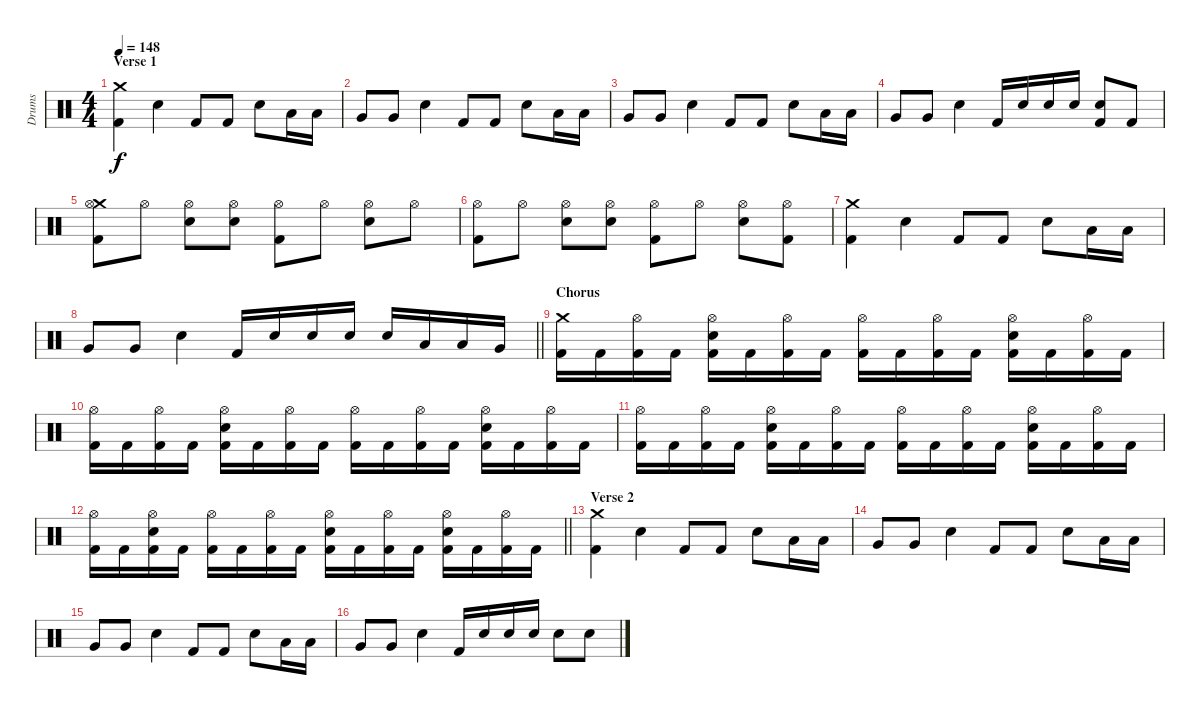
\track ("Drums" "Drums") {instrument percussion}
\staff {score}
\articulation defaults
\ts (4 4)
\section ("" "Verse 1")
\tempo 148
\clef neutral
\ks c
("Crash medium (hit)" "Kick (hit) 2").4{dy f} "Snare (hit) 2".4 "Kick (hit) 2".8 "Kick (hit) 2".8 "Snare (hit) 2".8 "Low Tom (hit)".16 "Low Tom (hit)".16 |
"Very Low Tom (hit)".8 "Very Low Tom (hit)".8 "Snare (hit) 2".4 "Kick (hit) 2".8 "Kick (hit) 2".8 "Snare (hit) 2".8 "Low Tom (hit)".16 "Low Tom (hit)".16 |
"Very Low Tom (hit)".8 "Very Low Tom (hit)".8 "Snare (hit) 2".4 "Kick (hit) 2".8 "Kick (hit) 2".8 "Snare (hit) 2".8 "Low Tom (hit)".16 "Low Tom (hit)".16 |
"Very Low Tom (hit)".8 "Very Low Tom (hit)".8 "Snare (hit) 2".4 "Kick (hit) 2".16 "Snare (hit) 2".16 "Snare (hit) 2".16 "Snare (hit) 2".16 ("Snare (hit) 2" "Kick (hit) 2").8 "Kick (hit) 2".8 |
("Crash medium (hit)" "Hi-Hat (open)" "Kick (hit) 2").8 "Hi-Hat (open)".8 ("Hi-Hat (open)" "Snare (hit) 2").8 ("Hi-Hat (open)" "Snare (hit) 2").8 ("Hi-Hat (open)" "Kick (hit) 2").8 "Hi-Hat (open)".8 ("Hi-Hat (open)" "Snare (hit) 2").8 "Hi-Hat (open)".8 |
("Hi-Hat (open)" "Kick (hit) 2").8 "Hi-Hat (open)".8 ("Hi-Hat (open)" "Snare (hit) 2").8 ("Hi-Hat (open)" "Snare (hit) 2").8 ("Hi-Hat (open)" "Kick (hit) 2").8 "Hi-Hat (open)".8 ("Hi-Hat (open)" "Snare (hit) 2").8 ("Hi-Hat (open)" "Kick (hit) 2").8 |
("Crash medium (hit)" "Kick (hit) 2").4 "Snare (hit) 2".4 "Kick (hit) 2".8 "Kick (hit) 2".8 "Snare (hit) 2".8 "Low Tom (hit)".16 "Low Tom (hit)".16 |
\barLineRight lightlight "Very Low Tom (hit)".8 "Very Low Tom (hit)".8 "Snare (hit) 2".4 "Kick (hit) 2".16 "Snare (hit) 2".16 "Snare (hit) 2".16 "Snare (hit) 2".16 "Snare (hit) 2".16 "Low Tom (hit)".16 "Low Tom (hit)".16 "Very Low Tom (hit)".16
|
\section ("" "Chorus")
("Crash medium (hit)" "Kick (hit) 2").16 "Kick (hit) 2".16 ("Hi-Hat (open)" "Kick (hit) 2").16 "Kick (hit) 2".16 ("Hi-Hat (open)" "Snare (hit) 2" "Kick (hit) 2").16 "Kick (hit) 2".16 ("Hi-Hat (open)" "Kick (hit) 2").16 "Kick (hit) 2".16 ("Hi-Hat (open)" "Kick (hit) 2").16 "Kick (hit) 2".16 ("Hi-Hat (open)" "Kick (hit) 2").16 "Kick (hit) 2".16 ("Hi-Hat (open)" "Snare (hit) 2" "Kick (hit) 2").16 "Kick (hit) 2".16 ("Hi-Hat (open)" "Kick (hit) 2").16 "Kick (hit) 2".16 |
("Hi-Hat (open)" "Kick (hit) 2").16 "Kick (hit) 2".16 ("Hi-Hat (open)" "Kick (hit) 2").16 "Kick (hit) 2".16 ("Hi-Hat (open)" "Snare (hit) 2" "Kick (hit) 2").16 "Kick (hit) 2".16 ("Hi-Hat (open)" "Kick (hit) 2").16 "Kick (hit) 2".16 ("Hi-Hat (open)" "Kick (hit) 2").16 "Kick (hit) 2".16 ("Hi-Hat (open)" "Kick (hit) 2").16 "Kick (hit) 2".16 ("Hi-Hat (open)" "Snare (hit) 2" "Kick (hit) 2").16 "Kick (hit) 2".16 ("Hi-Hat (open)" "Kick (hit) 2").16 "Kick (hit) 2".16 |
("Hi-Hat (open)" "Kick (hit) 2").16 "Kick (hit) 2".16 ("Hi-Hat (open)" "Kick (hit) 2").16 "Kick (hit) 2".16 ("Hi-Hat (open)" "Snare (hit) 2" "Kick (hit) 2").16 "Kick (hit) 2".16 ("Hi-Hat (open)" "Kick (hit) 2").16 "Kick (hit) 2".16 ("Hi-Hat (open)" "Kick (hit) 2").16 "Kick (hit) 2".16 ("Hi-Hat (open)" "Kick (hit) 2").16 "Kick (hit) 2".16 ("Hi-Hat (open)" "Snare (hit) 2" "Kick (hit) 2").16 "Kick (hit) 2".16 ("Hi-Hat (open)" "Kick (hit) 2").16 "Kick (hit) 2".16 |
\barLineRight lightlight
("Hi-Hat (open)" "Kick (hit) 2").16 "Kick (hit) 2".16 ("Hi-Hat (open)" "Snare (hit) 2" "Kick (hit) 2").16 "Kick (hit) 2".16 ("Hi-Hat (open)" "Kick (hit) 2").16 "Kick (hit) 2".16 ("Hi-Hat (open)" "Kick (hit) 2").16 "Kick (hit) 2".16 ("Hi-Hat (open)" "Snare (hit) 2" "Kick (hit) 2").16 "Kick (hit) 2".16 ("Hi-Hat (open)" "Kick (hit) 2").16 "Kick (hit) 2".16 ("Hi-Hat (open)" "Snare (hit) 2" "Kick (hit) 2").16 "Kick (hit) 2".16 ("Hi-Hat (open)" "Kick (hit) 2").16 "Kick (hit) 2".16 |
\section ("" "Verse 2")
("Crash medium (hit)" "Kick (hit) 2").4 "Snare (hit) 2".4 "Kick (hit) 2".8 "Kick (hit) 2".8 "Snare (hit) 2".8 "Low Tom (hit)".16 "Low Tom (hit)".16 |
"Very Low Tom (hit)".8 "Very Low Tom (hit)".8 "Snare (hit) 2".4 "Kick (hit) 2".8 "Kick (hit) 2".8 "Snare (hit) 2".8 "Low Tom (hit)".16 "Low Tom (hit)".16 |
"Very Low Tom (hit)".8 "Very Low Tom (hit)".8 "Snare (hit) 2".4 "Kick (hit) 2".8 "Kick (hit) 2".8 "Snare (hit) 2".8 "Low Tom (hit)".16 "Low Tom (hit)".16 |
"Very Low Tom (hit)".8 "Very Low Tom (hit)".8 "Snare (hit) 2".4 "Kick (hit) 2".16 "Snare (hit) 2".16 "Snare (hit) 2".16 "Snare (hit) 2".16 "Snare (hit) 2".8 "Snare (hit) 2".8
